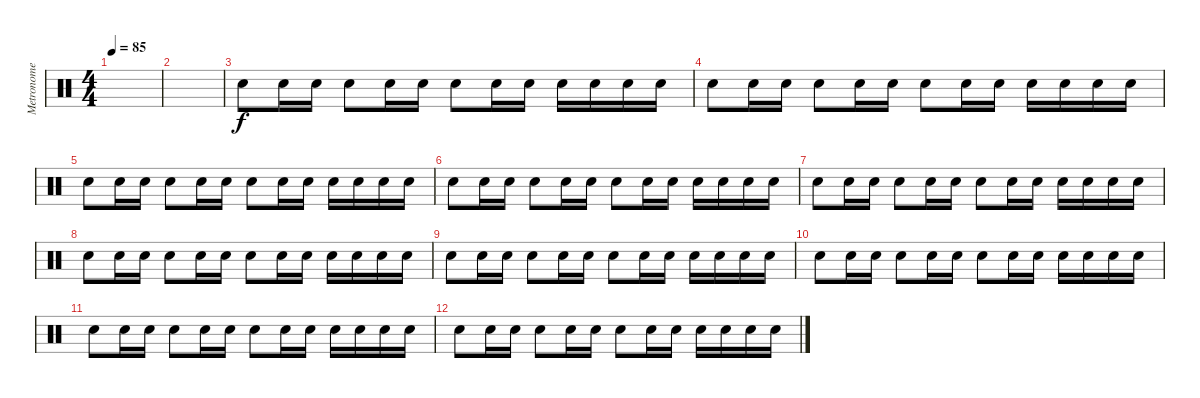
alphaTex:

\track ("Metronome Bell" "Metronome ") {instrument percussion}
\staff {score}
\articulation defaults
\ts (4 4)
\tempo 85
\clef neutral
\ks c
|
|
"Metronome (bell)".8 "Metronome (bell)".16 "Metronome (bell)".16 "Metronome (bell)".8 "Metronome (bell)".16 "Metronome (bell)".16 "Metronome (bell)".8 "Metronome (bell)".16 "Metronome (bell)".16 "Metronome (bell)".16 "Metronome (bell)".16 "Metronome (bell)".16 "Metronome (bell)".16 |
"Metronome (bell)".8 "Metronome (bell)".16 "Metronome (bell)".16 "Metronome (bell)".8 "Metronome (bell)".16 "Metronome (bell)".16 "Metronome (bell)".8 "Metronome (bell)".16 "Metronome (bell)".16 "Metronome (bell)".16 "Metronome (bell)".16 "Metronome (bell)".16 "Metronome (bell)".16 |
"Metronome (bell)".8 "Metronome (bell)".16 "Metronome (bell)".16 "Metronome (bell)".8 "Metronome (bell)".16 "Metronome (bell)".16 "Metronome (bell)".8 "Metronome (bell)".16 "Metronome (bell)".16 "Metronome (bell)".16 "Metronome (bell)".16 "Metronome (bell)".16 "Metronome (bell)".16 |
"Metronome (bell)".8 "Metronome (bell)".16 "Metronome (bell)".16 "Metronome (bell)".8 "Metronome (bell)".16 "Metronome (bell)".16 "Metronome (bell)".8 "Metronome (bell)".16 "Metronome (bell)".16 "Metronome (bell)".16 "Metronome (bell)".16 "Metronome (bell)".16 "Metronome (bell)".16 |
"Metronome (bell)".8 "Metronome (bell)".16 "Metronome (bell)".16 "Metronome (bell)".8 "Metronome (bell)".16 "Metronome (bell)".16 "Metronome (bell)".8 "Metronome (bell)".16 "Metronome (bell)".16 "Metronome (bell)".16 "Metronome (bell)".16 "Metronome (bell)".16 "Metronome (bell)".16 |
"Metronome (bell)".8 "Metronome (bell)".16 "Metronome (bell)".16 "Metronome (bell)".8 "Metronome (bell)".16 "Metronome (bell)".16 "Metronome (bell)".8 "Metronome (bell)".16 "Metronome (bell)".16 "Metronome (bell)".16 "Metronome (bell)".16 "Metronome (bell)".16 "Metronome (bell)".16 |
"Metronome (bell)".8 "Metronome (bell)".16 "Metronome (bell)".16 "Metronome (bell)".8 "Metronome (bell)".16 "Metronome (bell)".16 "Metronome (bell)".8 "Metronome (bell)".16 "Metronome (bell)".16 "Metronome (bell)".16 "Metronome (bell)".16 "Metronome (bell)".16 "Metronome (bell)".16 |
"Metronome (bell)".8 "Metronome (bell)".16 "Metronome (bell)".16 "Metronome (bell)".8 "Metronome (bell)".16 "Metronome (bell)".16 "Metronome (bell)".8 "Metronome (bell)".16 "Metronome (bell)".16 "Metronome (bell)".16 "Metronome (bell)".16 "Metronome (bell)".16 "Metronome (bell)".16 |
"Metronome (bell)".8 "Metronome (bell)".16 "Metronome (bell)".16 "Metronome (bell)".8 "Metronome (bell)".16 "Metronome (bell)".16 "Metronome (bell)".8 "Metronome (bell)".16 "Metronome (bell)".16 "Metronome (bell)".16 "Metronome (bell)".16 "Metronome (bell)".16 "Metronome (bell)".16 |
"Metronome (bell)".8 "Metronome (bell)".16 "Metronome (bell)".16 "Metronome (bell)".8 "Metronome (bell)".16 "Metronome (bell)".16 "Metronome (bell)".8 "Metronome (bell)".16 "Metronome (bell)".16 "Metronome (bell)".16 "Metronome (bell)".16 "Metronome (bell)".16 "Metronome (bell)".16
